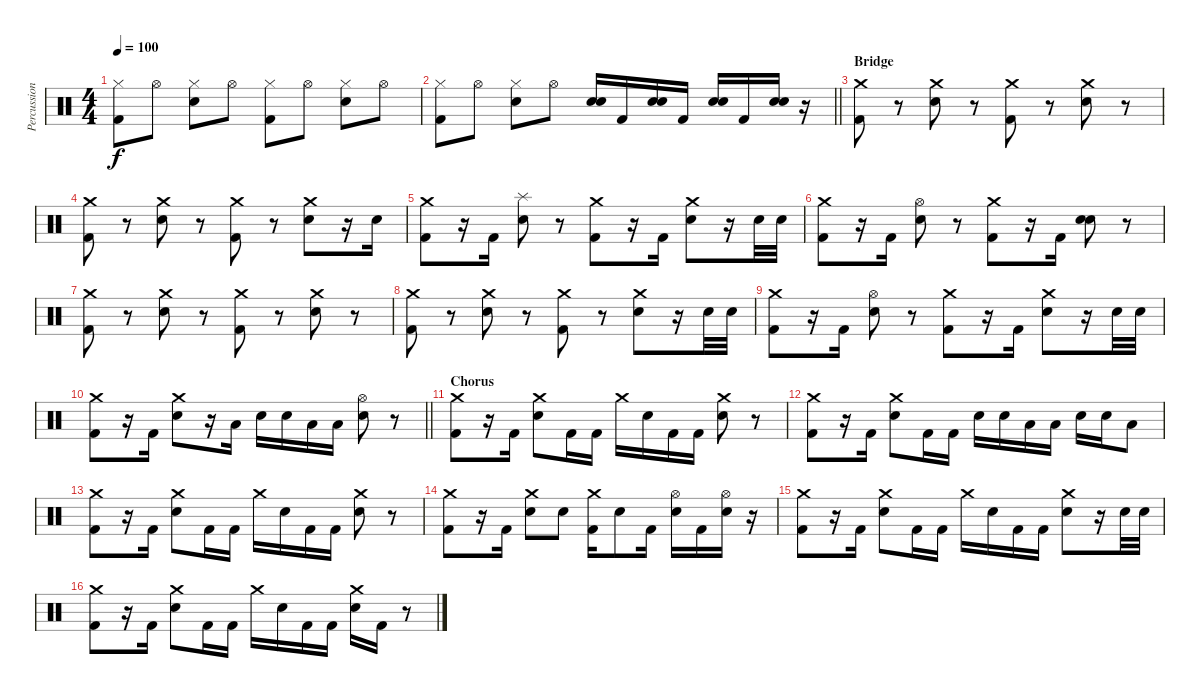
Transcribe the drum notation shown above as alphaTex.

\track ("Percussion" "Percussion") {instrument percussion}
\staff {score}
\articulation defaults
\ts (4 4)
\tempo 100
\clef neutral
\ks c
("Hi-Hat (closed)" "Kick (hit) 2").8{dy f} "Hi-Hat (open)".8 ("Hi-Hat (closed)" "Snare (hit) 2").8 "Hi-Hat (open)".8 ("Hi-Hat (closed)" "Kick (hit) 2").8 "Hi-Hat (open)".8 ("Hi-Hat (closed)" "Snare (hit) 2").8 "Hi-Hat (open)".8 |
\barLineRight lightlight
("Hi-Hat (closed)" "Kick (hit) 2").8 "Hi-Hat (open)".8 ("Hi-Hat (closed)" "Snare (hit) 2").8 "Hi-Hat (open)".8 ("Snare (hit) 2" "Snare (hit) 2").16 "Kick (hit) 2".16 ("Snare (hit) 2" "Snare (hit) 2").16 "Kick (hit) 2".16 ("Snare (hit) 2" "Snare (hit) 2").16 "Kick (hit) 2".16 ("Snare (hit) 2" "Snare (hit) 2").16 r.16 |
\section ("" "Bridge")
("Crash medium (hit)" "Kick (hit) 2").8 r.8 ("Crash medium (hit)" "Snare (hit) 2").8 r.8 ("Crash medium (hit)" "Kick (hit) 2").8 r.8 ("Crash medium (hit)" "Snare (hit) 2").8 r.8 |
("Crash medium (hit)" "Kick (hit) 2").8 r.8 ("Crash medium (hit)" "Snare (hit) 2").8 r.8 ("Crash medium (hit)" "Kick (hit) 2").8 r.8 ("Crash medium (hit)" "Snare (hit) 2").8 r.16 "Snare (hit) 2".16 |
("Crash medium (hit)" "Kick (hit) 2").8 r.16 "Kick (hit) 2".16 ("Splash (hit)" "Snare (hit) 2").8 r.8 ("Crash medium (hit)" "Kick (hit) 2").8 r.16 "Kick (hit) 2".16 ("Crash medium (hit)" "Snare (hit) 2").8 r.16 "Snare (hit) 2".32 "Snare (hit) 2".32 |
("Crash medium (hit)" "Kick (hit) 2").8 r.16 "Kick (hit) 2".16 ("Hi-Hat (open)" "Snare (hit) 2").8 r.8 ("Crash medium (hit)" "Kick (hit) 2").8 r.16 "Kick (hit) 2".16 ("Snare (hit) 2" "Snare (hit) 2").8 r.8 |
("Crash medium (hit)" "Kick (hit) 2").8 r.8 ("Crash medium (hit)" "Snare (hit) 2").8 r.8 ("Crash medium (hit)" "Kick (hit) 2").8 r.8 ("Crash medium (hit)" "Snare (hit) 2").8 r.8 |
("Crash medium (hit)" "Kick (hit) 2").8 r.8 ("Crash medium (hit)" "Snare (hit) 2").8 r.8 ("Crash medium (hit)" "Kick (hit) 2").8 r.8 ("Crash medium (hit)" "Snare (hit) 2").8 r.16 "Snare (hit) 2".32 "Snare (hit) 2".32 |
("Crash medium (hit)" "Kick (hit) 2").8 r.16 "Kick (hit) 2".16 ("Hi-Hat (open)" "Snare (hit) 2").8 r.8 ("Crash medium (hit)" "Kick (hit) 2").8 r.16 "Kick (hit) 2".16 ("Crash medium (hit)" "Snare (hit) 2").8 r.16 "Snare (hit) 2".32 "Snare (hit) 2".32 |
\barLineRight lightlight
("Crash medium (hit)" "Kick (hit) 2").8 r.16 "Kick (hit) 2".16 ("Crash medium (hit)" "Snare (hit) 2").8 r.16 "Low Tom (hit)".16 "Snare (hit) 2".16 "Snare (hit) 2".16 "Low Tom (hit)".16 "Low Tom (hit)".16 ("Hi-Hat (open)" "Snare (hit) 2").8 r.8 |
\section ("" "Chorus")
("Crash medium (hit)" "Kick (hit) 2").8 r.16 "Kick (hit) 2".16 ("Crash medium (hit)" "Snare (hit) 2").8 "Kick (hit) 2".16 "Kick (hit) 2".16 "Crash medium (hit)".16 "Snare (hit) 2".16 "Kick (hit) 2".16 "Kick (hit) 2".16 ("Crash medium (hit)" "Snare (hit) 2").8 r.8 |
("Crash medium (hit)" "Kick (hit) 2").8 r.16 "Kick (hit) 2".16 ("Crash medium (hit)" "Snare (hit) 2").8 "Kick (hit) 2".16 "Kick (hit) 2".16 "Snare (hit) 2".16 "Snare (hit) 2".16 "Low Tom (hit)".16 "Low Tom (hit)".16 "Snare (hit) 2".16 "Snare (hit) 2".16 "Low Tom (hit)".8 |
("Crash medium (hit)" "Kick (hit) 2").8 r.16 "Kick (hit) 2".16 ("Crash medium (hit)" "Snare (hit) 2").8 "Kick (hit) 2".16 "Kick (hit) 2".16 "Crash medium (hit)".16 "Snare (hit) 2".16 "Kick (hit) 2".16 "Kick (hit) 2".16 ("Crash medium (hit)" "Snare (hit) 2").8 r.8 |
("Crash medium (hit)" "Kick (hit) 2").8 r.16 "Kick (hit) 2".16 ("Crash medium (hit)" "Snare (hit) 2").8 "Snare (hit) 2".8 ("Crash medium (hit)" "Kick (hit) 2").16 "Snare (hit) 2".8 "Kick (hit) 2".16 ("Hi-Hat (open)" "Snare (hit) 2").16 "Kick (hit) 2".16 ("Hi-Hat (open)" "Snare (hit) 2").16 r.16 |
("Crash medium (hit)" "Kick (hit) 2").8 r.16 "Kick (hit) 2".16 ("Crash medium (hit)" "Snare (hit) 2").8 "Kick (hit) 2".16 "Kick (hit) 2".16 "Crash medium (hit)".16 "Snare (hit) 2".16 "Kick (hit) 2".16 "Kick (hit) 2".16 ("Crash medium (hit)" "Snare (hit) 2").8 r.16 "Snare (hit) 2".32 "Snare (hit) 2".32 |
("Crash medium (hit)" "Kick (hit) 2").8 r.16 "Kick (hit) 2".16 ("Crash medium (hit)" "Snare (hit) 2").8 "Kick (hit) 2".16 "Kick (hit) 2".16 "Crash medium (hit)".16 "Snare (hit) 2".16 "Kick (hit) 2".16 "Kick (hit) 2".16 ("Crash medium (hit)" "Snare (hit) 2").16 "Kick (hit) 2".16 r.8
